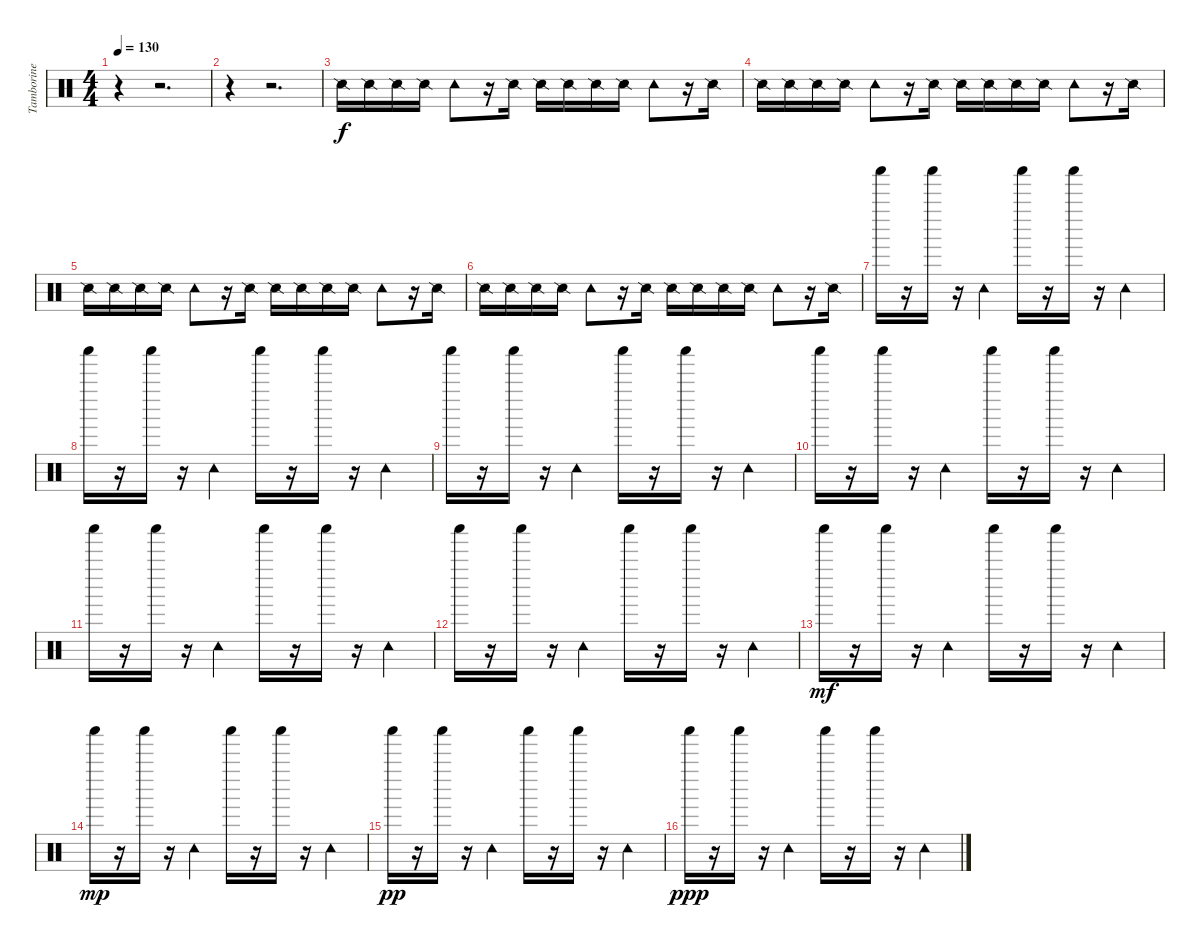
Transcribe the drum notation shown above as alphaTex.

\track ("Tamborine" "Tamborine") {instrument percussion}
\staff {score}
\articulation defaults
\ts (4 4)
\tempo 130
\clef neutral
\ks c
r.4{dy f} r.2{d} |
r.4 r.2{d} |
"Snare (side stick) 2".16 "Snare (side stick) 2".16 "Snare (side stick) 2".16 "Snare (side stick) 2".16 "Tambourine (hit)".8 r.16 "Snare (side stick) 2".16 "Snare (side stick) 2".16 "Snare (side stick) 2".16 "Snare (side stick) 2".16 "Snare (side stick) 2".16 "Tambourine (hit)".8 r.16 "Snare (side stick) 2".16 |
"Snare (side stick) 2".16 "Snare (side stick) 2".16 "Snare (side stick) 2".16 "Snare (side stick) 2".16 "Tambourine (hit)".8 r.16 "Snare (side stick) 2".16 "Snare (side stick) 2".16 "Snare (side stick) 2".16 "Snare (side stick) 2".16 "Snare (side stick) 2".16 "Tambourine (hit)".8 r.16 "Snare (side stick) 2".16 |
"Snare (side stick) 2".16 "Snare (side stick) 2".16 "Snare (side stick) 2".16 "Snare (side stick) 2".16 "Tambourine (hit)".8 r.16 "Snare (side stick) 2".16 "Snare (side stick) 2".16 "Snare (side stick) 2".16 "Snare (side stick) 2".16 "Snare (side stick) 2".16 "Tambourine (hit)".8 r.16 "Snare (side stick) 2".16 |
"Snare (side stick) 2".16 "Snare (side stick) 2".16 "Snare (side stick) 2".16 "Snare (side stick) 2".16 "Tambourine (hit)".8 r.16 "Snare (side stick) 2".16 "Snare (side stick) 2".16 "Snare (side stick) 2".16 "Snare (side stick) 2".16 "Snare (side stick) 2".16 "Tambourine (hit)".8 r.16 "Snare (side stick) 2".16 |
"Shaker (hit)".16 r.16 "Shaker (hit)".16 r.16 "Tambourine (hit)".4 "Shaker (hit)".16 r.16 "Shaker (hit)".16 r.16 "Tambourine (hit)".4 |
"Shaker (hit)".16 r.16 "Shaker (hit)".16 r.16 "Tambourine (hit)".4 "Shaker (hit)".16 r.16 "Shaker (hit)".16 r.16 "Tambourine (hit)".4 |
"Shaker (hit)".16 r.16 "Shaker (hit)".16 r.16 "Tambourine (hit)".4 "Shaker (hit)".16 r.16 "Shaker (hit)".16 r.16 "Tambourine (hit)".4 |
"Shaker (hit)".16 r.16 "Shaker (hit)".16 r.16 "Tambourine (hit)".4 "Shaker (hit)".16 r.16 "Shaker (hit)".16 r.16 "Tambourine (hit)".4 |
"Shaker (hit)".16 r.16 "Shaker (hit)".16 r.16 "Tambourine (hit)".4 "Shaker (hit)".16 r.16 "Shaker (hit)".16 r.16 "Tambourine (hit)".4 |
"Shaker (hit)".16 r.16 "Shaker (hit)".16 r.16 "Tambourine (hit)".4 "Shaker (hit)".16 r.16 "Shaker (hit)".16 r.16 "Tambourine (hit)".4 |
"Shaker (hit)".16{dy mf} r.16 "Shaker (hit)".16 r.16 "Tambourine (hit)".4 "Shaker (hit)".16 r.16 "Shaker (hit)".16 r.16 "Tambourine (hit)".4 |
"Shaker (hit)".16{dy mp} r.16 "Shaker (hit)".16 r.16 "Tambourine (hit)".4 "Shaker (hit)".16 r.16 "Shaker (hit)".16 r.16 "Tambourine (hit)".4 |
"Shaker (hit)".16{dy pp} r.16 "Shaker (hit)".16 r.16 "Tambourine (hit)".4 "Shaker (hit)".16 r.16 "Shaker (hit)".16 r.16 "Tambourine (hit)".4 |
"Shaker (hit)".16{dy ppp} r.16 "Shaker (hit)".16 r.16 "Tambourine (hit)".4 "Shaker (hit)".16 r.16 "Shaker (hit)".16 r.16 "Tambourine (hit)".4
